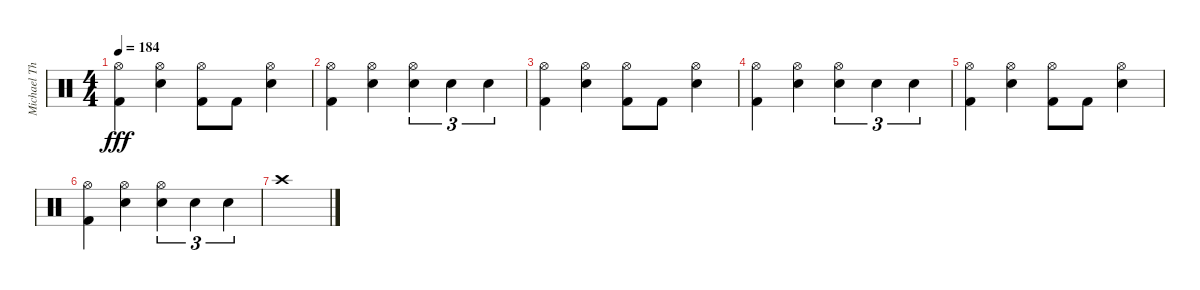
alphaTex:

\track ("Michael Thomas" "Michael Th") {instrument percussion}
\staff {score}
\articulation defaults
\ts (4 4)
\tempo 184
\clef neutral
\ks c
("Hi-Hat (open)" "Kick (hit) 2").4{dy fff} ("Hi-Hat (open)" "Snare (hit) 2").4 ("Hi-Hat (open)" "Kick (hit) 2").8 "Kick (hit) 2".8 ("Hi-Hat (open)" "Snare (hit) 2").4 |
("Hi-Hat (open)" "Kick (hit) 2").4 ("Hi-Hat (open)" "Snare (hit) 2").4 ("Hi-Hat (open)" "Snare (hit) 2").4{tu (3 2)} "Snare (hit) 2".4{tu (3 2)} "Snare (hit) 2".4{tu (3 2)} |
("Hi-Hat (open)" "Kick (hit) 2").4 ("Hi-Hat (open)" "Snare (hit) 2").4 ("Hi-Hat (open)" "Kick (hit) 2").8 "Kick (hit) 2".8 ("Hi-Hat (open)" "Snare (hit) 2").4 |
("Hi-Hat (open)" "Kick (hit) 2").4 ("Hi-Hat (open)" "Snare (hit) 2").4 ("Hi-Hat (open)" "Snare (hit) 2").4{tu (3 2)} "Snare (hit) 2".4{tu (3 2)} "Snare (hit) 2".4{tu (3 2)} |
("Hi-Hat (open)" "Kick (hit) 2").4 ("Hi-Hat (open)" "Snare (hit) 2").4 ("Hi-Hat (open)" "Kick (hit) 2").8 "Kick (hit) 2".8 ("Hi-Hat (open)" "Snare (hit) 2").4 |
("Hi-Hat (open)" "Kick (hit) 2").4 ("Hi-Hat (open)" "Snare (hit) 2").4 ("Hi-Hat (open)" "Snare (hit) 2").4{tu (3 2)} "Snare (hit) 2".4{tu (3 2)} "Snare (hit) 2".4{tu (3 2)} |
"Crash high (hit)".1
